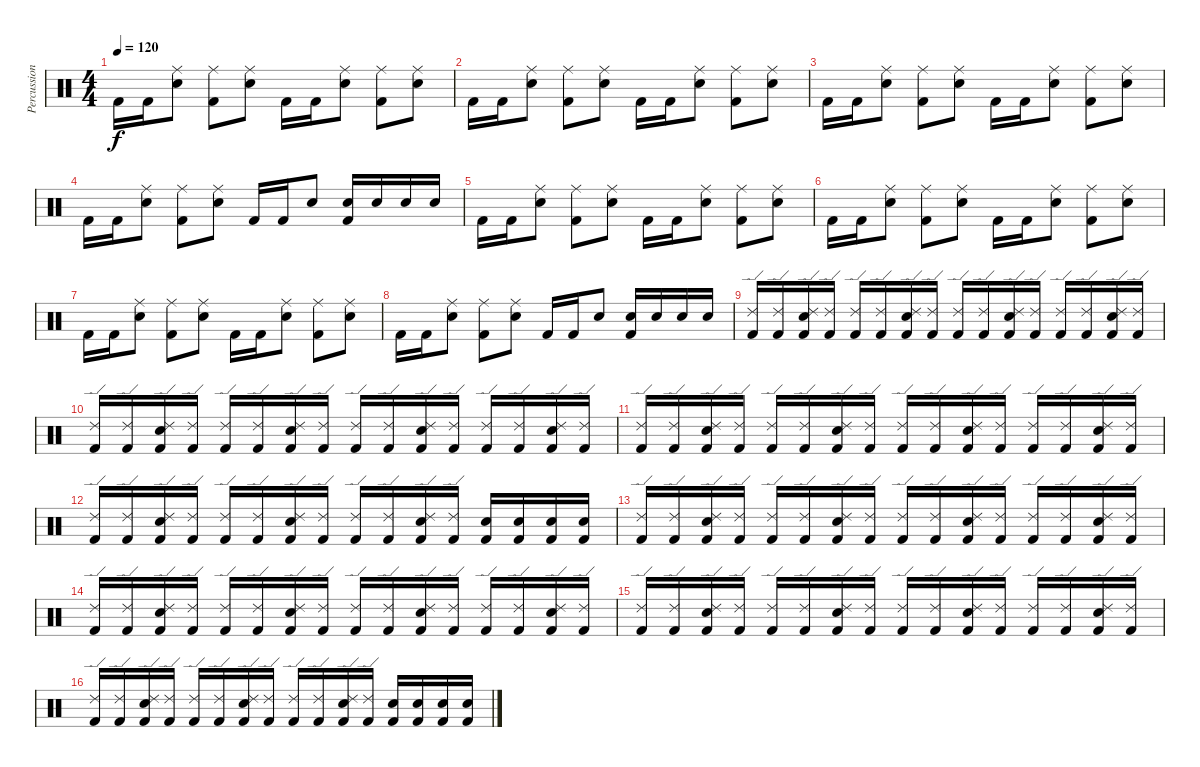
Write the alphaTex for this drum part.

\track ("Percussion" "Percussion") {instrument percussion}
\staff {score}
\articulation defaults
\ts (4 4)
\tempo 120
\clef neutral
\ks c "Kick (hit) 2".16{dy f} "Kick (hit) 2".16
("Snare (hit) 2" "Ride (middle)").8 ("Kick (hit) 2" "Ride (middle)").8 ("Snare (hit) 2" "Ride (middle)").8 "Kick (hit) 2".16 "Kick (hit) 2".16 ("Snare (hit) 2" "Ride (middle)").8 ("Kick (hit) 2" "Ride (middle)").8 ("Snare (hit) 2" "Ride (middle)").8 |
"Kick (hit) 2".16 "Kick (hit) 2".16 ("Snare (hit) 2" "Ride (middle)").8 ("Kick (hit) 2" "Ride (middle)").8 ("Snare (hit) 2" "Ride (middle)").8 "Kick (hit) 2".16 "Kick (hit) 2".16 ("Snare (hit) 2" "Ride (middle)").8 ("Kick (hit) 2" "Ride (middle)").8 ("Snare (hit) 2" "Ride (middle)").8 |
"Kick (hit) 2".16 "Kick (hit) 2".16 ("Snare (hit) 2" "Ride (middle)").8 ("Kick (hit) 2" "Ride (middle)").8 ("Snare (hit) 2" "Ride (middle)").8 "Kick (hit) 2".16 "Kick (hit) 2".16 ("Snare (hit) 2" "Ride (middle)").8 ("Kick (hit) 2" "Ride (middle)").8 ("Snare (hit) 2" "Ride (middle)").8 |
"Kick (hit) 2".16 "Kick (hit) 2".16 ("Snare (hit) 2" "Ride (middle)").8 ("Kick (hit) 2" "Ride (middle)").8 ("Snare (hit) 2" "Ride (middle)").8 "Kick (hit) 2".16 "Kick (hit) 2".16 "Snare (hit) 2".8 ("Kick (hit) 2" "Snare (hit) 2").16 "Snare (hit) 2".16 "Snare (hit) 2".16 "Snare (hit) 2".16 |
"Kick (hit) 2".16 "Kick (hit) 2".16 ("Snare (hit) 2" "Ride (middle)").8 ("Kick (hit) 2" "Ride (middle)").8 ("Snare (hit) 2" "Ride (middle)").8 "Kick (hit) 2".16 "Kick (hit) 2".16 ("Snare (hit) 2" "Ride (middle)").8 ("Kick (hit) 2" "Ride (middle)").8 ("Snare (hit) 2" "Ride (middle)").8 |
"Kick (hit) 2".16 "Kick (hit) 2".16 ("Snare (hit) 2" "Ride (middle)").8 ("Kick (hit) 2" "Ride (middle)").8 ("Snare (hit) 2" "Ride (middle)").8 "Kick (hit) 2".16 "Kick (hit) 2".16 ("Snare (hit) 2" "Ride (middle)").8 ("Kick (hit) 2" "Ride (middle)").8 ("Snare (hit) 2" "Ride (middle)").8 |
"Kick (hit) 2".16 "Kick (hit) 2".16 ("Snare (hit) 2" "Ride (middle)").8 ("Kick (hit) 2" "Ride (middle)").8 ("Snare (hit) 2" "Ride (middle)").8 "Kick (hit) 2".16 "Kick (hit) 2".16 ("Snare (hit) 2" "Ride (middle)").8 ("Kick (hit) 2" "Ride (middle)").8 ("Snare (hit) 2" "Ride (middle)").8 |
"Kick (hit) 2".16 "Kick (hit) 2".16 ("Snare (hit) 2" "Ride (middle)").8 ("Kick (hit) 2" "Ride (middle)").8 ("Snare (hit) 2" "Ride (middle)").8 "Kick (hit) 2".16 "Kick (hit) 2".16 "Snare (hit) 2".8 ("Kick (hit) 2" "Snare (hit) 2").16 "Snare (hit) 2".16 "Snare (hit) 2".16 "Snare (hit) 2".16 |
("Kick (hit) 2" "Ride (edge) 2").16 ("Kick (hit) 2" "Ride (edge) 2").16 ("Kick (hit) 2" "Snare (hit) 2" "Ride (edge) 2").16 ("Kick (hit) 2" "Ride (edge) 2").16 ("Kick (hit) 2" "Ride (edge) 2").16 ("Kick (hit) 2" "Ride (edge) 2").16 ("Kick (hit) 2" "Snare (hit) 2" "Ride (edge) 2").16 ("Kick (hit) 2" "Ride (edge) 2").16 ("Kick (hit) 2" "Ride (edge) 2").16 ("Kick (hit) 2" "Ride (edge) 2").16 ("Kick (hit) 2" "Snare (hit) 2" "Ride (edge) 2").16 ("Kick (hit) 2" "Ride (edge) 2").16 ("Kick (hit) 2" "Ride (edge) 2").16 ("Kick (hit) 2" "Ride (edge) 2").16 ("Kick (hit) 2" "Snare (hit) 2" "Ride (edge) 2").16 ("Kick (hit) 2" "Ride (edge) 2").16 |
("Kick (hit) 2" "Ride (edge) 2").16 ("Kick (hit) 2" "Ride (edge) 2").16 ("Kick (hit) 2" "Snare (hit) 2" "Ride (edge) 2").16 ("Kick (hit) 2" "Ride (edge) 2").16 ("Kick (hit) 2" "Ride (edge) 2").16 ("Kick (hit) 2" "Ride (edge) 2").16 ("Kick (hit) 2" "Snare (hit) 2" "Ride (edge) 2").16 ("Kick (hit) 2" "Ride (edge) 2").16 ("Kick (hit) 2" "Ride (edge) 2").16 ("Kick (hit) 2" "Ride (edge) 2").16 ("Kick (hit) 2" "Snare (hit) 2" "Ride (edge) 2").16 ("Kick (hit) 2" "Ride (edge) 2").16 ("Kick (hit) 2" "Ride (edge) 2").16 ("Kick (hit) 2" "Ride (edge) 2").16 ("Kick (hit) 2" "Snare (hit) 2" "Ride (edge) 2").16 ("Kick (hit) 2" "Ride (edge) 2").16 |
("Kick (hit) 2" "Ride (edge) 2").16 ("Kick (hit) 2" "Ride (edge) 2").16 ("Kick (hit) 2" "Snare (hit) 2" "Ride (edge) 2").16 ("Kick (hit) 2" "Ride (edge) 2").16 ("Kick (hit) 2" "Ride (edge) 2").16 ("Kick (hit) 2" "Ride (edge) 2").16 ("Kick (hit) 2" "Snare (hit) 2" "Ride (edge) 2").16 ("Kick (hit) 2" "Ride (edge) 2").16 ("Kick (hit) 2" "Ride (edge) 2").16 ("Kick (hit) 2" "Ride (edge) 2").16 ("Kick (hit) 2" "Snare (hit) 2" "Ride (edge) 2").16 ("Kick (hit) 2" "Ride (edge) 2").16 ("Kick (hit) 2" "Ride (edge) 2").16 ("Kick (hit) 2" "Ride (edge) 2").16 ("Kick (hit) 2" "Snare (hit) 2" "Ride (edge) 2").16 ("Kick (hit) 2" "Ride (edge) 2").16 |
("Kick (hit) 2" "Ride (edge) 2").16 ("Kick (hit) 2" "Ride (edge) 2").16 ("Kick (hit) 2" "Snare (hit) 2" "Ride (edge) 2").16 ("Kick (hit) 2" "Ride (edge) 2").16 ("Kick (hit) 2" "Ride (edge) 2").16 ("Kick (hit) 2" "Ride (edge) 2").16 ("Kick (hit) 2" "Snare (hit) 2" "Ride (edge) 2").16 ("Kick (hit) 2" "Ride (edge) 2").16 ("Kick (hit) 2" "Ride (edge) 2").16 ("Kick (hit) 2" "Ride (edge) 2").16 ("Kick (hit) 2" "Snare (hit) 2" "Ride (edge) 2").16 ("Kick (hit) 2" "Ride (edge) 2").16 ("Kick (hit) 2" "Snare (hit) 2").16 ("Kick (hit) 2" "Snare (hit) 2").16 ("Kick (hit) 2" "Snare (hit) 2").16 ("Kick (hit) 2" "Snare (hit) 2").16 |
("Kick (hit) 2" "Ride (edge) 2").16 ("Kick (hit) 2" "Ride (edge) 2").16 ("Kick (hit) 2" "Snare (hit) 2" "Ride (edge) 2").16 ("Kick (hit) 2" "Ride (edge) 2").16 ("Kick (hit) 2" "Ride (edge) 2").16 ("Kick (hit) 2" "Ride (edge) 2").16 ("Kick (hit) 2" "Snare (hit) 2" "Ride (edge) 2").16 ("Kick (hit) 2" "Ride (edge) 2").16 ("Kick (hit) 2" "Ride (edge) 2").16 ("Kick (hit) 2" "Ride (edge) 2").16 ("Kick (hit) 2" "Snare (hit) 2" "Ride (edge) 2").16 ("Kick (hit) 2" "Ride (edge) 2").16 ("Kick (hit) 2" "Ride (edge) 2").16 ("Kick (hit) 2" "Ride (edge) 2").16 ("Kick (hit) 2" "Snare (hit) 2" "Ride (edge) 2").16 ("Kick (hit) 2" "Ride (edge) 2").16 |
("Kick (hit) 2" "Ride (edge) 2").16 ("Kick (hit) 2" "Ride (edge) 2").16 ("Kick (hit) 2" "Snare (hit) 2" "Ride (edge) 2").16 ("Kick (hit) 2" "Ride (edge) 2").16 ("Kick (hit) 2" "Ride (edge) 2").16 ("Kick (hit) 2" "Ride (edge) 2").16 ("Kick (hit) 2" "Snare (hit) 2" "Ride (edge) 2").16 ("Kick (hit) 2" "Ride (edge) 2").16 ("Kick (hit) 2" "Ride (edge) 2").16 ("Kick (hit) 2" "Ride (edge) 2").16 ("Kick (hit) 2" "Snare (hit) 2" "Ride (edge) 2").16 ("Kick (hit) 2" "Ride (edge) 2").16 ("Kick (hit) 2" "Ride (edge) 2").16 ("Kick (hit) 2" "Ride (edge) 2").16 ("Kick (hit) 2" "Snare (hit) 2" "Ride (edge) 2").16 ("Kick (hit) 2" "Ride (edge) 2").16 |
("Kick (hit) 2" "Ride (edge) 2").16 ("Kick (hit) 2" "Ride (edge) 2").16 ("Kick (hit) 2" "Snare (hit) 2" "Ride (edge) 2").16 ("Kick (hit) 2" "Ride (edge) 2").16 ("Kick (hit) 2" "Ride (edge) 2").16 ("Kick (hit) 2" "Ride (edge) 2").16 ("Kick (hit) 2" "Snare (hit) 2" "Ride (edge) 2").16 ("Kick (hit) 2" "Ride (edge) 2").16 ("Kick (hit) 2" "Ride (edge) 2").16 ("Kick (hit) 2" "Ride (edge) 2").16 ("Kick (hit) 2" "Snare (hit) 2" "Ride (edge) 2").16 ("Kick (hit) 2" "Ride (edge) 2").16 ("Kick (hit) 2" "Ride (edge) 2").16 ("Kick (hit) 2" "Ride (edge) 2").16 ("Kick (hit) 2" "Snare (hit) 2" "Ride (edge) 2").16 ("Kick (hit) 2" "Ride (edge) 2").16 |
("Kick (hit) 2" "Ride (edge) 2").16 ("Kick (hit) 2" "Ride (edge) 2").16 ("Kick (hit) 2" "Snare (hit) 2" "Ride (edge) 2").16 ("Kick (hit) 2" "Ride (edge) 2").16 ("Kick (hit) 2" "Ride (edge) 2").16 ("Kick (hit) 2" "Ride (edge) 2").16 ("Kick (hit) 2" "Snare (hit) 2" "Ride (edge) 2").16 ("Kick (hit) 2" "Ride (edge) 2").16 ("Kick (hit) 2" "Ride (edge) 2").16 ("Kick (hit) 2" "Ride (edge) 2").16 ("Kick (hit) 2" "Snare (hit) 2" "Ride (edge) 2").16 ("Kick (hit) 2" "Ride (edge) 2").16 ("Kick (hit) 2" "Snare (hit) 2").16 ("Kick (hit) 2" "Snare (hit) 2").16 ("Kick (hit) 2" "Snare (hit) 2").16 ("Kick (hit) 2" "Snare (hit) 2").16
